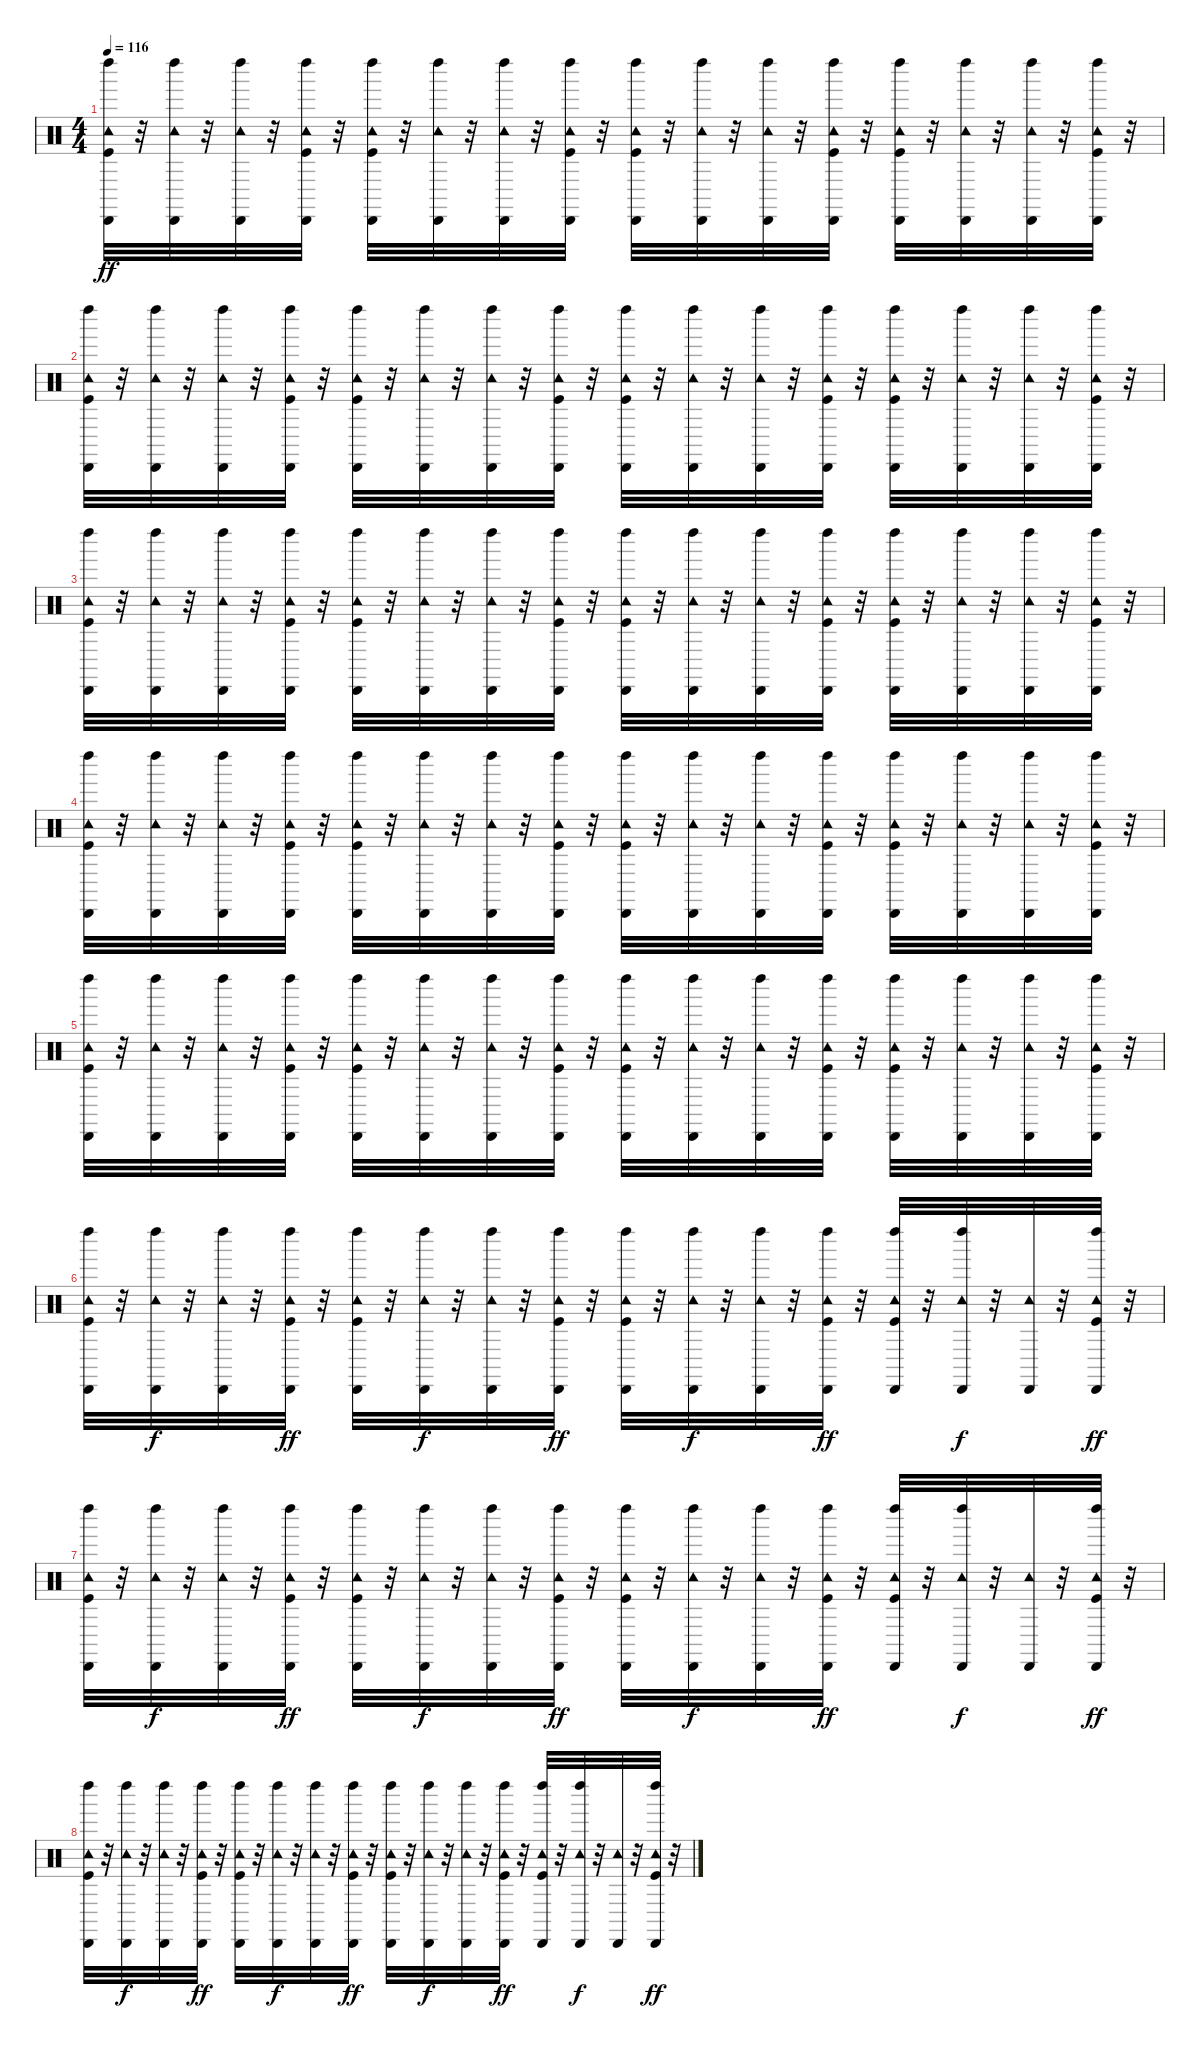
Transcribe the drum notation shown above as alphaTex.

\track "" {instrument percussion}
\staff {score}
\articulation defaults
\ts (4 4)
\tempo 116
\clef neutral
\ks c
("Kick (hit)" "Tambourine (hit)" "Cabasa (hit)" "Left Maraca (hit)").32{dy ff} r.32 ("Tambourine (hit)" "Cabasa (hit)" "Left Maraca (hit)").32 r.32 ("Tambourine (hit)" "Cabasa (hit)" "Left Maraca (hit)").32 r.32 ("Kick (hit)" "Tambourine (hit)" "Cabasa (hit)" "Left Maraca (hit)").32 r.32 ("Kick (hit)" "Tambourine (hit)" "Cabasa (hit)" "Left Maraca (hit)").32 r.32 ("Tambourine (hit)" "Cabasa (hit)" "Left Maraca (hit)").32 r.32 ("Tambourine (hit)" "Cabasa (hit)" "Left Maraca (hit)").32 r.32 ("Kick (hit)" "Tambourine (hit)" "Cabasa (hit)" "Left Maraca (hit)").32 r.32 ("Kick (hit)" "Tambourine (hit)" "Cabasa (hit)" "Left Maraca (hit)").32 r.32 ("Tambourine (hit)" "Cabasa (hit)" "Left Maraca (hit)").32 r.32 ("Tambourine (hit)" "Cabasa (hit)" "Left Maraca (hit)").32 r.32 ("Kick (hit)" "Tambourine (hit)" "Cabasa (hit)" "Left Maraca (hit)").32 r.32 ("Kick (hit)" "Tambourine (hit)" "Cabasa (hit)" "Left Maraca (hit)").32 r.32 ("Tambourine (hit)" "Cabasa (hit)" "Left Maraca (hit)").32 r.32 ("Tambourine (hit)" "Cabasa (hit)" "Left Maraca (hit)").32 r.32 ("Kick (hit)" "Tambourine (hit)" "Cabasa (hit)" "Left Maraca (hit)").32 r.32 |
("Kick (hit)" "Tambourine (hit)" "Cabasa (hit)" "Left Maraca (hit)").32 r.32 ("Tambourine (hit)" "Cabasa (hit)" "Left Maraca (hit)").32 r.32 ("Tambourine (hit)" "Cabasa (hit)" "Left Maraca (hit)").32 r.32 ("Kick (hit)" "Tambourine (hit)" "Cabasa (hit)" "Left Maraca (hit)").32 r.32 ("Kick (hit)" "Tambourine (hit)" "Cabasa (hit)" "Left Maraca (hit)").32 r.32 ("Tambourine (hit)" "Cabasa (hit)" "Left Maraca (hit)").32 r.32 ("Tambourine (hit)" "Cabasa (hit)" "Left Maraca (hit)").32 r.32 ("Kick (hit)" "Tambourine (hit)" "Cabasa (hit)" "Left Maraca (hit)").32 r.32 ("Kick (hit)" "Tambourine (hit)" "Cabasa (hit)" "Left Maraca (hit)").32 r.32 ("Tambourine (hit)" "Cabasa (hit)" "Left Maraca (hit)").32 r.32 ("Tambourine (hit)" "Cabasa (hit)" "Left Maraca (hit)").32 r.32 ("Kick (hit)" "Tambourine (hit)" "Cabasa (hit)" "Left Maraca (hit)").32 r.32 ("Kick (hit)" "Tambourine (hit)" "Cabasa (hit)" "Left Maraca (hit)").32 r.32 ("Tambourine (hit)" "Cabasa (hit)" "Left Maraca (hit)").32 r.32 ("Tambourine (hit)" "Cabasa (hit)" "Left Maraca (hit)").32 r.32 ("Kick (hit)" "Tambourine (hit)" "Cabasa (hit)" "Left Maraca (hit)").32 r.32 |
("Kick (hit)" "Tambourine (hit)" "Cabasa (hit)" "Left Maraca (hit)").32 r.32 ("Tambourine (hit)" "Cabasa (hit)" "Left Maraca (hit)").32 r.32 ("Tambourine (hit)" "Cabasa (hit)" "Left Maraca (hit)").32 r.32 ("Kick (hit)" "Tambourine (hit)" "Cabasa (hit)" "Left Maraca (hit)").32 r.32 ("Kick (hit)" "Tambourine (hit)" "Cabasa (hit)" "Left Maraca (hit)").32 r.32 ("Tambourine (hit)" "Cabasa (hit)" "Left Maraca (hit)").32 r.32 ("Tambourine (hit)" "Cabasa (hit)" "Left Maraca (hit)").32 r.32 ("Kick (hit)" "Tambourine (hit)" "Cabasa (hit)" "Left Maraca (hit)").32 r.32 ("Kick (hit)" "Tambourine (hit)" "Cabasa (hit)" "Left Maraca (hit)").32 r.32 ("Tambourine (hit)" "Cabasa (hit)" "Left Maraca (hit)").32 r.32 ("Tambourine (hit)" "Cabasa (hit)" "Left Maraca (hit)").32 r.32 ("Kick (hit)" "Tambourine (hit)" "Cabasa (hit)" "Left Maraca (hit)").32 r.32 ("Kick (hit)" "Tambourine (hit)" "Cabasa (hit)" "Left Maraca (hit)").32 r.32 ("Tambourine (hit)" "Cabasa (hit)" "Left Maraca (hit)").32 r.32 ("Tambourine (hit)" "Cabasa (hit)" "Left Maraca (hit)").32 r.32 ("Kick (hit)" "Tambourine (hit)" "Cabasa (hit)" "Left Maraca (hit)").32 r.32 |
("Kick (hit)" "Tambourine (hit)" "Cabasa (hit)" "Left Maraca (hit)").32 r.32 ("Tambourine (hit)" "Cabasa (hit)" "Left Maraca (hit)").32 r.32 ("Tambourine (hit)" "Cabasa (hit)" "Left Maraca (hit)").32 r.32 ("Kick (hit)" "Tambourine (hit)" "Cabasa (hit)" "Left Maraca (hit)").32 r.32 ("Kick (hit)" "Tambourine (hit)" "Cabasa (hit)" "Left Maraca (hit)").32 r.32 ("Tambourine (hit)" "Cabasa (hit)" "Left Maraca (hit)").32 r.32 ("Tambourine (hit)" "Cabasa (hit)" "Left Maraca (hit)").32 r.32 ("Kick (hit)" "Tambourine (hit)" "Cabasa (hit)" "Left Maraca (hit)").32 r.32 ("Kick (hit)" "Tambourine (hit)" "Cabasa (hit)" "Left Maraca (hit)").32 r.32 ("Tambourine (hit)" "Cabasa (hit)" "Left Maraca (hit)").32 r.32 ("Tambourine (hit)" "Cabasa (hit)" "Left Maraca (hit)").32 r.32 ("Kick (hit)" "Tambourine (hit)" "Cabasa (hit)" "Left Maraca (hit)").32 r.32 ("Kick (hit)" "Tambourine (hit)" "Cabasa (hit)" "Left Maraca (hit)").32 r.32 ("Tambourine (hit)" "Cabasa (hit)" "Left Maraca (hit)").32 r.32 ("Tambourine (hit)" "Cabasa (hit)" "Left Maraca (hit)").32 r.32 ("Kick (hit)" "Tambourine (hit)" "Cabasa (hit)" "Left Maraca (hit)").32 r.32 |
("Kick (hit)" "Tambourine (hit)" "Cabasa (hit)" "Left Maraca (hit)").32 r.32 ("Tambourine (hit)" "Cabasa (hit)" "Left Maraca (hit)").32 r.32 ("Tambourine (hit)" "Cabasa (hit)" "Left Maraca (hit)").32 r.32 ("Kick (hit)" "Tambourine (hit)" "Cabasa (hit)" "Left Maraca (hit)").32 r.32 ("Kick (hit)" "Tambourine (hit)" "Cabasa (hit)" "Left Maraca (hit)").32 r.32 ("Tambourine (hit)" "Cabasa (hit)" "Left Maraca (hit)").32 r.32 ("Tambourine (hit)" "Cabasa (hit)" "Left Maraca (hit)").32 r.32 ("Kick (hit)" "Tambourine (hit)" "Cabasa (hit)" "Left Maraca (hit)").32 r.32 ("Kick (hit)" "Tambourine (hit)" "Cabasa (hit)" "Left Maraca (hit)").32 r.32 ("Tambourine (hit)" "Cabasa (hit)" "Left Maraca (hit)").32 r.32 ("Tambourine (hit)" "Cabasa (hit)" "Left Maraca (hit)").32 r.32 ("Kick (hit)" "Tambourine (hit)" "Cabasa (hit)" "Left Maraca (hit)").32 r.32 ("Kick (hit)" "Tambourine (hit)" "Cabasa (hit)" "Left Maraca (hit)").32 r.32 ("Tambourine (hit)" "Cabasa (hit)" "Left Maraca (hit)").32 r.32 ("Tambourine (hit)" "Cabasa (hit)" "Left Maraca (hit)").32 r.32 ("Kick (hit)" "Tambourine (hit)" "Cabasa (hit)" "Left Maraca (hit)").32 r.32 |
("Kick (hit)" "Tambourine (hit)" "Cabasa (hit)" "Left Maraca (hit)").32 r.32 ("Tambourine (hit)" "Cabasa (hit)" "Left Maraca (hit)").32{dy f} r.32 ("Tambourine (hit)" "Cabasa (hit)" "Left Maraca (hit)").32 r.32 ("Kick (hit)" "Tambourine (hit)" "Cabasa (hit)" "Left Maraca (hit)").32{dy ff} r.32 ("Kick (hit)" "Tambourine (hit)" "Cabasa (hit)" "Left Maraca (hit)").32 r.32 ("Tambourine (hit)" "Cabasa (hit)" "Left Maraca (hit)").32{dy f} r.32 ("Tambourine (hit)" "Cabasa (hit)" "Left Maraca (hit)").32 r.32 ("Kick (hit)" "Tambourine (hit)" "Cabasa (hit)" "Left Maraca (hit)").32{dy ff} r.32 ("Kick (hit)" "Tambourine (hit)" "Cabasa (hit)" "Left Maraca (hit)").32 r.32 ("Tambourine (hit)" "Cabasa (hit)" "Left Maraca (hit)").32{dy f} r.32 ("Tambourine (hit)" "Cabasa (hit)" "Left Maraca (hit)").32 r.32 ("Kick (hit)" "Tambourine (hit)" "Cabasa (hit)" "Left Maraca (hit)").32{dy ff} r.32 ("Kick (hit)" "Tambourine (hit)" "Cabasa (hit)" "Left Maraca (hit)").32 r.32 ("Tambourine (hit)" "Cabasa (hit)" "Left Maraca (hit)").32{dy f} r.32 ("Tambourine (hit)" "Cabasa (hit)").32 r.32 ("Kick (hit)" "Tambourine (hit)" "Cabasa (hit)" "Left Maraca (hit)").32{dy ff} r.32 |
("Kick (hit)" "Tambourine (hit)" "Cabasa (hit)" "Left Maraca (hit)").32 r.32 ("Tambourine (hit)" "Cabasa (hit)" "Left Maraca (hit)").32{dy f} r.32 ("Tambourine (hit)" "Cabasa (hit)" "Left Maraca (hit)").32 r.32 ("Kick (hit)" "Tambourine (hit)" "Cabasa (hit)" "Left Maraca (hit)").32{dy ff} r.32 ("Kick (hit)" "Tambourine (hit)" "Cabasa (hit)" "Left Maraca (hit)").32 r.32 ("Tambourine (hit)" "Cabasa (hit)" "Left Maraca (hit)").32{dy f} r.32 ("Tambourine (hit)" "Cabasa (hit)" "Left Maraca (hit)").32 r.32 ("Kick (hit)" "Tambourine (hit)" "Cabasa (hit)" "Left Maraca (hit)").32{dy ff} r.32 ("Kick (hit)" "Tambourine (hit)" "Cabasa (hit)" "Left Maraca (hit)").32 r.32 ("Tambourine (hit)" "Cabasa (hit)" "Left Maraca (hit)").32{dy f} r.32 ("Tambourine (hit)" "Cabasa (hit)" "Left Maraca (hit)").32 r.32 ("Kick (hit)" "Tambourine (hit)" "Cabasa (hit)" "Left Maraca (hit)").32{dy ff} r.32 ("Kick (hit)" "Tambourine (hit)" "Cabasa (hit)" "Left Maraca (hit)").32 r.32 ("Tambourine (hit)" "Cabasa (hit)" "Left Maraca (hit)").32{dy f} r.32 ("Tambourine (hit)" "Cabasa (hit)").32 r.32 ("Kick (hit)" "Tambourine (hit)" "Cabasa (hit)" "Left Maraca (hit)").32{dy ff} r.32 |
("Kick (hit)" "Tambourine (hit)" "Cabasa (hit)" "Left Maraca (hit)").32 r.32 ("Tambourine (hit)" "Cabasa (hit)" "Left Maraca (hit)").32{dy f} r.32 ("Tambourine (hit)" "Cabasa (hit)" "Left Maraca (hit)").32 r.32 ("Kick (hit)" "Tambourine (hit)" "Cabasa (hit)" "Left Maraca (hit)").32{dy ff} r.32 ("Kick (hit)" "Tambourine (hit)" "Cabasa (hit)" "Left Maraca (hit)").32 r.32 ("Tambourine (hit)" "Cabasa (hit)" "Left Maraca (hit)").32{dy f} r.32 ("Tambourine (hit)" "Cabasa (hit)" "Left Maraca (hit)").32 r.32 ("Kick (hit)" "Tambourine (hit)" "Cabasa (hit)" "Left Maraca (hit)").32{dy ff} r.32 ("Kick (hit)" "Tambourine (hit)" "Cabasa (hit)" "Left Maraca (hit)").32 r.32 ("Tambourine (hit)" "Cabasa (hit)" "Left Maraca (hit)").32{dy f} r.32 ("Tambourine (hit)" "Cabasa (hit)" "Left Maraca (hit)").32 r.32 ("Kick (hit)" "Tambourine (hit)" "Cabasa (hit)" "Left Maraca (hit)").32{dy ff} r.32 ("Kick (hit)" "Tambourine (hit)" "Cabasa (hit)" "Left Maraca (hit)").32 r.32 ("Tambourine (hit)" "Cabasa (hit)" "Left Maraca (hit)").32{dy f} r.32 ("Tambourine (hit)" "Cabasa (hit)").32 r.32 ("Kick (hit)" "Tambourine (hit)" "Cabasa (hit)" "Left Maraca (hit)").32{dy ff} r.32
